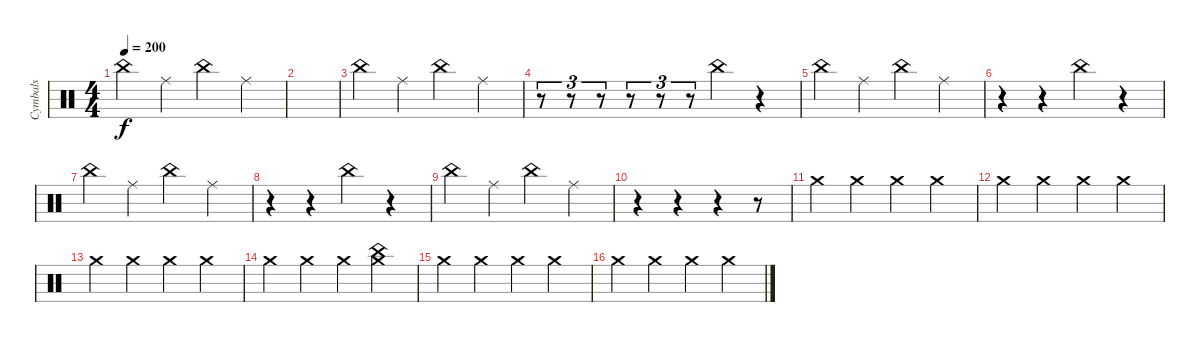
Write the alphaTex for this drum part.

\track ("Cymbals" "Cymbals") {instrument percussion}
\staff {score}
\articulation defaults
\ts (4 4)
\tempo 200
\clef neutral
\ks c "China (hit)".4{dy f} "Ride (middle)".4 "China (hit)".4 "Ride (middle)".4
|
|
"China (hit)".4 "Ride (middle)".4 "China (hit)".4 "Ride (middle)".4 |
r.8{tu (3 2)} r.8{tu (3 2)} r.8{tu (3 2)} r.8{tu (3 2)} r.8{tu (3 2)} r.8{tu (3 2)} "China (hit)".4 r.4 |
"China (hit)".4 "Ride (middle)".4 "China (hit)".4 "Ride (middle)".4 |
r.4 r.4 "China (hit)".4 r.4 |
"China (hit)".4 "Ride (middle)".4 "China (hit)".4 "Ride (middle)".4 |
r.4 r.4 "China (hit)".4 r.4 |
"China (hit)".4 "Ride (middle)".4 "China (hit)".4 "Ride (middle)".4 |
r.4 r.4 r.4 r.8 |
"Crash medium (hit)".4 "Crash medium (hit)".4 "Crash medium (hit)".4 "Crash medium (hit)".4 |
"Crash medium (hit)".4 "Crash medium (hit)".4 "Crash medium (hit)".4 "Crash medium (hit)".4 |
"Crash medium (hit)".4 "Crash medium (hit)".4 "Crash medium (hit)".4 "Crash medium (hit)".4 |
"Crash medium (hit)".4 "Crash medium (hit)".4 "Crash medium (hit)".4 ("Crash medium (hit)" "China (hit)").4 |
"Crash medium (hit)".4 "Crash medium (hit)".4 "Crash medium (hit)".4 "Crash medium (hit)".4 |
"Crash medium (hit)".4 "Crash medium (hit)".4 "Crash medium (hit)".4 "Crash medium (hit)".4
